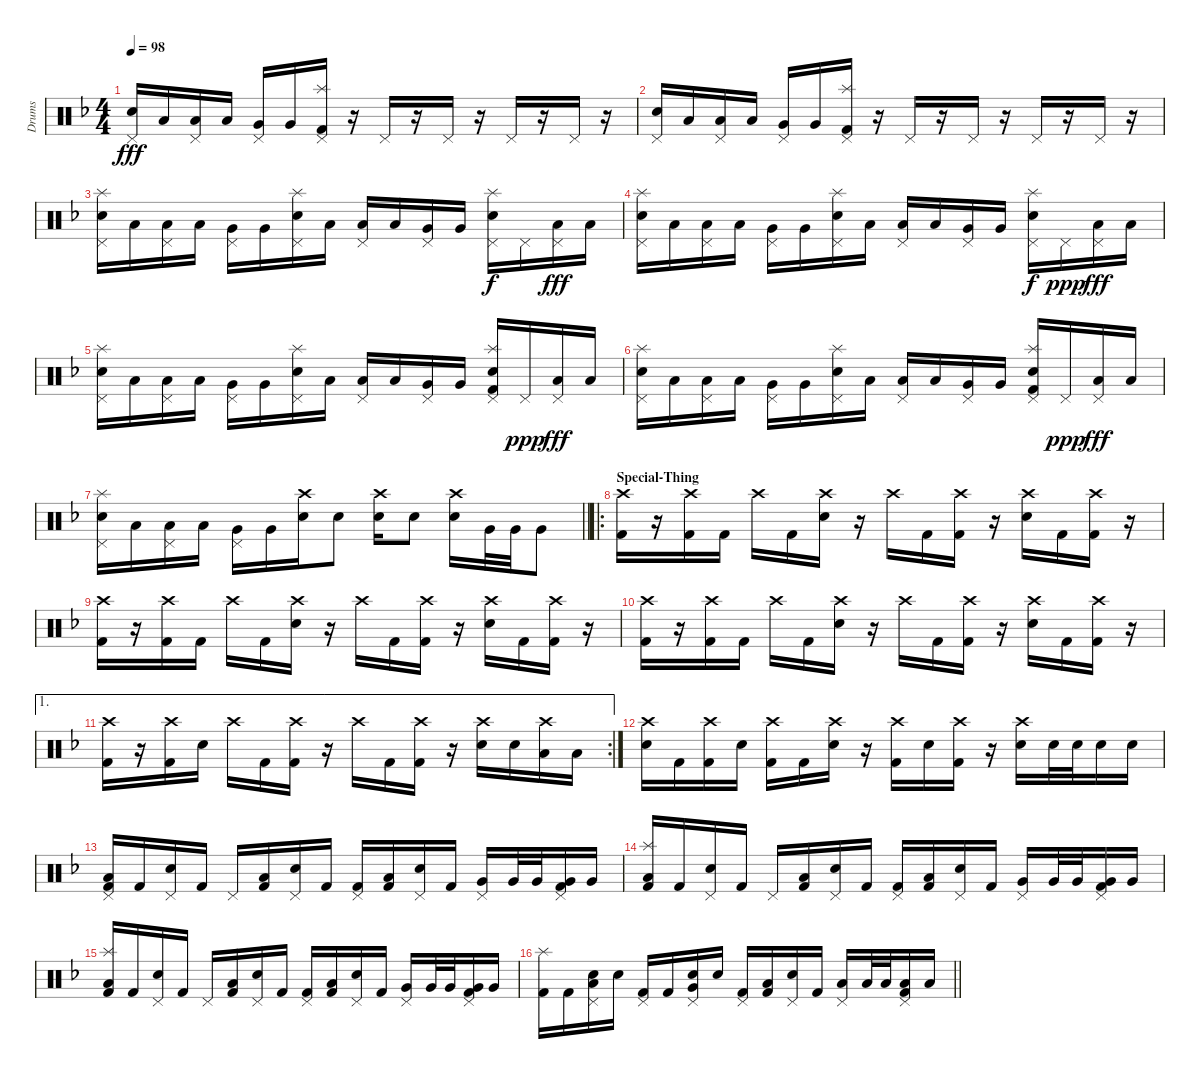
\track ("Drums" "Drums") {instrument percussion}
\staff {score}
\articulation defaults
\ts (4 4)
\tempo 98
\clef neutral
\ks f
("Pedal Hi-Hat (hit)" "Snare (hit) 2").16{dy fff} "Low Tom (hit)".16 ("Pedal Hi-Hat (hit)" "Low Tom (hit)").16 "Low Tom (hit)".16 ("Pedal Hi-Hat (hit)" "Very Low Tom (hit)").16 "Very Low Tom (hit)".16 ("Pedal Hi-Hat (hit)" "Splash (hit)" "Kick (hit) 2").16 r.16 "Pedal Hi-Hat (hit)".16 r.16 "Pedal Hi-Hat (hit)".16 r.16 "Pedal Hi-Hat (hit)".16 r.16 "Pedal Hi-Hat (hit)".16 r.16 |
("Pedal Hi-Hat (hit)" "Snare (hit) 2").16 "Low Tom (hit)".16 ("Pedal Hi-Hat (hit)" "Low Tom (hit)").16 "Low Tom (hit)".16 ("Pedal Hi-Hat (hit)" "Very Low Tom (hit)").16 "Very Low Tom (hit)".16 ("Pedal Hi-Hat (hit)" "Splash (hit)" "Kick (hit) 2").16 r.16 "Pedal Hi-Hat (hit)".16 r.16 "Pedal Hi-Hat (hit)".16 r.16 "Pedal Hi-Hat (hit)".16 r.16 "Pedal Hi-Hat (hit)".16 r.16 |
("Pedal Hi-Hat (hit)" "Splash (hit)" "Snare (hit) 2").16 "Low Tom (hit)".16 ("Pedal Hi-Hat (hit)" "Low Tom (hit)").16 "Low Tom (hit)".16 ("Pedal Hi-Hat (hit)" "Very Low Tom (hit)").16 "Very Low Tom (hit)".16 ("Pedal Hi-Hat (hit)" "Splash (hit)" "Snare (hit) 2").16 "Low Tom (hit)".16 ("Pedal Hi-Hat (hit)" "Low Tom (hit)").16 "Low Tom (hit)".16 ("Pedal Hi-Hat (hit)" "Very Low Tom (hit)").16 "Very Low Tom (hit)".16 ("Pedal Hi-Hat (hit)" "Splash (hit)" "Snare (hit) 2").16{dy f} "Pedal Hi-Hat (hit)".16 ("Pedal Hi-Hat (hit)" "Low Tom (hit)").16{dy fff} "Low Tom (hit)".16 |
("Pedal Hi-Hat (hit)" "Splash (hit)" "Snare (hit) 2").16 "Low Tom (hit)".16 ("Pedal Hi-Hat (hit)" "Low Tom (hit)").16 "Low Tom (hit)".16 ("Pedal Hi-Hat (hit)" "Very Low Tom (hit)").16 "Very Low Tom (hit)".16 ("Pedal Hi-Hat (hit)" "Splash (hit)" "Snare (hit) 2").16 "Low Tom (hit)".16 ("Pedal Hi-Hat (hit)" "Low Tom (hit)").16 "Low Tom (hit)".16 ("Pedal Hi-Hat (hit)" "Very Low Tom (hit)").16 "Very Low Tom (hit)".16 ("Pedal Hi-Hat (hit)" "Splash (hit)" "Snare (hit) 2").16{dy f} "Pedal Hi-Hat (hit)".16{dy ppp} ("Pedal Hi-Hat (hit)" "Low Tom (hit)").16{dy fff} "Low Tom (hit)".16 |
("Pedal Hi-Hat (hit)" "Splash (hit)" "Snare (hit) 2").16 "Low Tom (hit)".16 ("Pedal Hi-Hat (hit)" "Low Tom (hit)").16 "Low Tom (hit)".16 ("Pedal Hi-Hat (hit)" "Very Low Tom (hit)").16 "Very Low Tom (hit)".16 ("Pedal Hi-Hat (hit)" "Splash (hit)" "Snare (hit) 2").16 "Low Tom (hit)".16 ("Pedal Hi-Hat (hit)" "Low Tom (hit)").16 "Low Tom (hit)".16 ("Pedal Hi-Hat (hit)" "Very Low Tom (hit)").16 "Very Low Tom (hit)".16 ("Pedal Hi-Hat (hit)" "Splash (hit)" "Snare (hit) 2" "Kick (hit) 2").16 "Pedal Hi-Hat (hit)".16{dy ppp} ("Pedal Hi-Hat (hit)" "Low Tom (hit)").16{dy fff} "Low Tom (hit)".16 |
("Pedal Hi-Hat (hit)" "Splash (hit)" "Snare (hit) 2").16 "Low Tom (hit)".16 ("Pedal Hi-Hat (hit)" "Low Tom (hit)").16 "Low Tom (hit)".16 ("Pedal Hi-Hat (hit)" "Very Low Tom (hit)").16 "Very Low Tom (hit)".16 ("Pedal Hi-Hat (hit)" "Splash (hit)" "Snare (hit) 2").16 "Low Tom (hit)".16 ("Pedal Hi-Hat (hit)" "Low Tom (hit)").16 "Low Tom (hit)".16 ("Pedal Hi-Hat (hit)" "Very Low Tom (hit)").16 "Very Low Tom (hit)".16 ("Pedal Hi-Hat (hit)" "Splash (hit)" "Snare (hit) 2" "Kick (hit) 2").16 "Pedal Hi-Hat (hit)".16{dy ppp} ("Pedal Hi-Hat (hit)" "Low Tom (hit)").16{dy fff} "Low Tom (hit)".16 |
\barLineRight lightlight
("Pedal Hi-Hat (hit)" "Splash (hit)" "Snare (hit) 2").16 "Low Tom (hit)".16 ("Pedal Hi-Hat (hit)" "Low Tom (hit)").16 "Low Tom (hit)".16 ("Pedal Hi-Hat (hit)" "Very Low Tom (hit)").16 "Very Low Tom (hit)".16 ("Crash high (hit)" "Snare (hit) 2").16 "Snare (hit) 2".8 ("Crash high (hit)" "Snare (hit) 2").16 "Snare (hit) 2".8 ("Crash high (hit)" "Snare (hit) 2").16 "Very Low Tom (hit)".32 "Very Low Tom (hit)".32 "Very Low Tom (hit)".8 |
\ro
\section ("" "Special-Thing")
("Crash high (hit)" "Kick (hit) 2").16 r.16 ("Crash high (hit)" "Kick (hit) 2").16 "Kick (hit) 2".16 "Crash high (hit)".16 "Kick (hit) 2".16 ("Crash high (hit)" "Snare (hit) 2").16 r.16 "Crash high (hit)".16 "Kick (hit) 2".16 ("Crash high (hit)" "Kick (hit) 2").16 r.16 ("Crash high (hit)" "Snare (hit) 2").16 "Kick (hit) 2".16 ("Crash high (hit)" "Kick (hit) 2").16 r.16 |
("Crash high (hit)" "Kick (hit) 2").16 r.16 ("Crash high (hit)" "Kick (hit) 2").16 "Kick (hit) 2".16 "Crash high (hit)".16 "Kick (hit) 2".16 ("Crash high (hit)" "Snare (hit) 2").16 r.16 "Crash high (hit)".16 "Kick (hit) 2".16 ("Crash high (hit)" "Kick (hit) 2").16 r.16 ("Crash high (hit)" "Snare (hit) 2").16 "Kick (hit) 2".16 ("Crash high (hit)" "Kick (hit) 2").16 r.16 |
("Crash high (hit)" "Kick (hit) 2").16 r.16 ("Crash high (hit)" "Kick (hit) 2").16 "Kick (hit) 2".16 "Crash high (hit)".16 "Kick (hit) 2".16 ("Crash high (hit)" "Snare (hit) 2").16 r.16 "Crash high (hit)".16 "Kick (hit) 2".16 ("Crash high (hit)" "Kick (hit) 2").16 r.16 ("Crash high (hit)" "Snare (hit) 2").16 "Kick (hit) 2".16 ("Crash high (hit)" "Kick (hit) 2").16 r.16 |
\ae 1
\rc 2
("Crash high (hit)" "Kick (hit) 2").16 r.16 ("Crash high (hit)" "Kick (hit) 2").16 "Snare (hit) 2".16 "Crash high (hit)".16 "Kick (hit) 2".16 ("Crash high (hit)" "Kick (hit) 2").16 r.16 "Crash high (hit)".16 "Kick (hit) 2".16 ("Crash high (hit)" "Kick (hit) 2").16 r.16 ("Crash high (hit)" "Snare (hit) 2").16 "Snare (hit) 2".16 ("Crash high (hit)" "Low Tom (hit)").16 "Low Tom (hit)".16 |
("Crash high (hit)" "Snare (hit) 2").16 "Kick (hit) 2".16 ("Crash high (hit)" "Kick (hit) 2").16 "Snare (hit) 2".16 ("Crash high (hit)" "Kick (hit) 2").16 "Kick (hit) 2".16 ("Crash high (hit)" "Snare (hit) 2").16 r.16 ("Crash high (hit)" "Kick (hit) 2").16 "Snare (hit) 2".16 ("Crash high (hit)" "Kick (hit) 2").16 r.16 ("Crash high (hit)" "Snare (hit) 2").16 "Snare (hit) 2".32 "Snare (hit) 2".32 "Snare (hit) 2".16 "Snare (hit) 2".16 |
("Pedal Hi-Hat (hit)" "Low Tom (hit)" "Kick (hit) 2").16 "Kick (hit) 2".16 ("Pedal Hi-Hat (hit)" "Snare (hit) 2").16 "Kick (hit) 2".16 "Pedal Hi-Hat (hit)".16 ("Low Tom (hit)" "Kick (hit) 2").16 ("Pedal Hi-Hat (hit)" "Snare (hit) 2").16 "Kick (hit) 2".16 ("Pedal Hi-Hat (hit)" "Kick (hit) 2").16 ("Low Tom (hit)" "Kick (hit) 2").16 ("Pedal Hi-Hat (hit)" "Snare (hit) 2").16 "Kick (hit) 2".16 ("Pedal Hi-Hat (hit)" "Very Low Tom (hit)").16 "Very Low Tom (hit)".32 "Very Low Tom (hit)".32 ("Pedal Hi-Hat (hit)" "Very Low Tom (hit)" "Kick (hit) 2").16 "Very Low Tom (hit)".16 |
("Splash (hit)" "Low Tom (hit)" "Kick (hit) 2").16 "Kick (hit) 2".16 ("Pedal Hi-Hat (hit)" "Snare (hit) 2").16 "Kick (hit) 2".16 "Pedal Hi-Hat (hit)".16 ("Low Tom (hit)" "Kick (hit) 2").16 ("Pedal Hi-Hat (hit)" "Snare (hit) 2").16 "Kick (hit) 2".16 ("Pedal Hi-Hat (hit)" "Kick (hit) 2").16 ("Low Tom (hit)" "Kick (hit) 2").16 ("Pedal Hi-Hat (hit)" "Snare (hit) 2").16 "Kick (hit) 2".16 ("Pedal Hi-Hat (hit)" "Very Low Tom (hit)").16 "Very Low Tom (hit)".32 "Very Low Tom (hit)".32 ("Pedal Hi-Hat (hit)" "Very Low Tom (hit)" "Kick (hit) 2").16 "Very Low Tom (hit)".16 |
("Splash (hit)" "Low Tom (hit)" "Kick (hit) 2").16 "Kick (hit) 2".16 ("Pedal Hi-Hat (hit)" "Snare (hit) 2").16 "Kick (hit) 2".16 "Pedal Hi-Hat (hit)".16 ("Low Tom (hit)" "Kick (hit) 2").16 ("Pedal Hi-Hat (hit)" "Snare (hit) 2").16 "Kick (hit) 2".16 ("Pedal Hi-Hat (hit)" "Kick (hit) 2").16 ("Low Tom (hit)" "Kick (hit) 2").16 ("Pedal Hi-Hat (hit)" "Snare (hit) 2").16 "Kick (hit) 2".16 ("Pedal Hi-Hat (hit)" "Very Low Tom (hit)").16 "Very Low Tom (hit)".32 "Very Low Tom (hit)".32 ("Pedal Hi-Hat (hit)" "Very Low Tom (hit)" "Kick (hit) 2").16 "Very Low Tom (hit)".16 |
\barLineRight lightlight
("Splash (hit)" "Kick (hit) 2").16 "Kick (hit) 2".16 ("Pedal Hi-Hat (hit)" "Low Tom (hit)" "Snare (hit) 2").16 "Snare (hit) 2".16 ("Pedal Hi-Hat (hit)" "Kick (hit) 2").16 "Kick (hit) 2".16 ("Pedal Hi-Hat (hit)" "Very Low Tom (hit)" "Snare (hit) 2").16 "Snare (hit) 2".16 ("Pedal Hi-Hat (hit)" "Kick (hit) 2").16 ("Low Tom (hit)" "Kick (hit) 2").16 ("Pedal Hi-Hat (hit)" "Snare (hit) 2").16 "Kick (hit) 2".16 ("Pedal Hi-Hat (hit)" "Low Tom (hit)").16 "Low Tom (hit)".32 "Low Tom (hit)".32 ("Pedal Hi-Hat (hit)" "Low Tom (hit)" "Kick (hit) 2").16 "Low Tom (hit)".16
